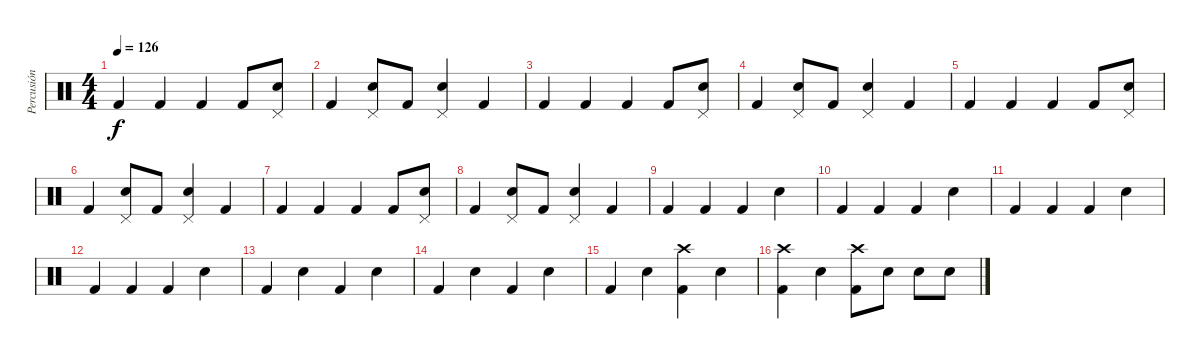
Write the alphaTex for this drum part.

\track ("Percusión" "Percusión") {instrument percussion}
\staff {score}
\articulation defaults
\ts (4 4)
\tempo 126
\clef neutral
\ks c "Kick (hit) 2".4{dy f} "Kick (hit) 2".4 "Kick (hit) 2".4 "Kick (hit) 2".8
("Pedal Hi-Hat (hit)" "Snare (hit) 2").8 |
"Kick (hit) 2".4 ("Pedal Hi-Hat (hit)" "Snare (hit) 2").8 "Kick (hit) 2".8 ("Pedal Hi-Hat (hit)" "Snare (hit) 2").4 "Kick (hit) 2".4 |
"Kick (hit) 2".4 "Kick (hit) 2".4 "Kick (hit) 2".4 "Kick (hit) 2".8 ("Pedal Hi-Hat (hit)" "Snare (hit) 2").8 |
"Kick (hit) 2".4 ("Pedal Hi-Hat (hit)" "Snare (hit) 2").8 "Kick (hit) 2".8 ("Pedal Hi-Hat (hit)" "Snare (hit) 2").4 "Kick (hit) 2".4 |
"Kick (hit) 2".4 "Kick (hit) 2".4 "Kick (hit) 2".4 "Kick (hit) 2".8 ("Pedal Hi-Hat (hit)" "Snare (hit) 2").8 |
"Kick (hit) 2".4 ("Pedal Hi-Hat (hit)" "Snare (hit) 2").8 "Kick (hit) 2".8 ("Pedal Hi-Hat (hit)" "Snare (hit) 2").4 "Kick (hit) 2".4 |
"Kick (hit) 2".4 "Kick (hit) 2".4 "Kick (hit) 2".4 "Kick (hit) 2".8 ("Pedal Hi-Hat (hit)" "Snare (hit) 2").8 |
"Kick (hit) 2".4 ("Pedal Hi-Hat (hit)" "Snare (hit) 2").8 "Kick (hit) 2".8 ("Pedal Hi-Hat (hit)" "Snare (hit) 2").4 "Kick (hit) 2".4 |
"Kick (hit) 2".4 "Kick (hit) 2".4 "Kick (hit) 2".4 "Snare (hit) 2".4 |
"Kick (hit) 2".4 "Kick (hit) 2".4 "Kick (hit) 2".4 "Snare (hit) 2".4 |
"Kick (hit) 2".4 "Kick (hit) 2".4 "Kick (hit) 2".4 "Snare (hit) 2".4 |
"Kick (hit) 2".4 "Kick (hit) 2".4 "Kick (hit) 2".4 "Snare (hit) 2".4 |
"Kick (hit) 2".4 "Snare (hit) 2".4 "Kick (hit) 2".4 "Snare (hit) 2".4 |
"Kick (hit) 2".4 "Snare (hit) 2".4 "Kick (hit) 2".4 "Snare (hit) 2".4 |
"Kick (hit) 2".4 "Snare (hit) 2".4 ("Crash high (hit)" "Kick (hit) 2").4 "Snare (hit) 2".4 |
("Crash high (hit)" "Kick (hit) 2").4 "Snare (hit) 2".4 ("Crash high (hit)" "Kick (hit) 2").8 "Snare (hit) 2".8 "Snare (hit) 2".8 "Snare (hit) 2".8
